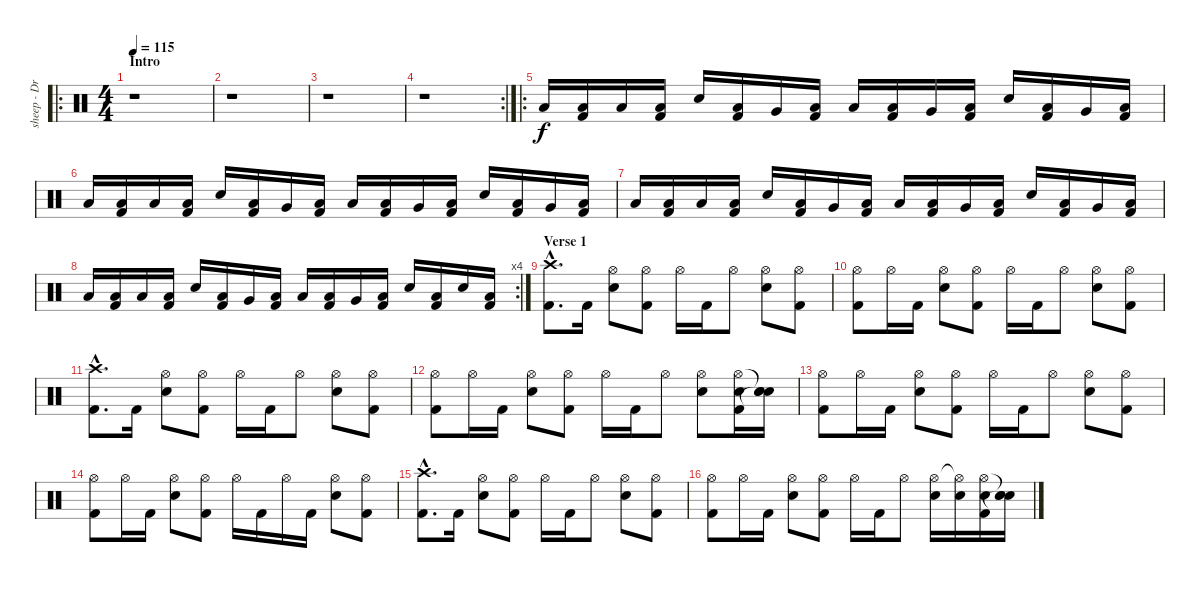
\track ("sheep - Drum track (guide)" "sheep - Dr") {instrument percussion}
\staff {score}
\articulation defaults
\ro
\ts (4 4)
\section ("" "Intro")
\tempo 115
\clef neutral
\ks c
r.1{dy f} |
r.1 |
r.1 |
\rc 2
r.1 |
\ro "Low Tom (hit)".16
("Low Tom (hit)" "Kick (hit) 2").16 "Low Tom (hit)".16 ("Low Tom (hit)" "Kick (hit) 2").16 "Electric Snare (hit)".16 ("Low Tom (hit)" "Kick (hit) 2").16 "Very Low Tom (hit)".16 ("Low Floor Tom (hit)" "Kick (hit) 2").16 "Low Tom (hit)".16 ("Low Floor Tom (hit)" "Kick (hit) 2").16 "Very Low Tom (hit)".16 ("Low Tom (hit)" "Kick (hit) 2").16 "Electric Snare (hit)".16 ("Low Tom (hit)" "Kick (hit) 2").16 "Very Low Tom (hit)".16 ("Low Floor Tom (hit)" "Kick (hit) 2").16 |
"Low Tom (hit)".16 ("Low Tom (hit)" "Kick (hit) 2").16 "Low Tom (hit)".16 ("Low Tom (hit)" "Kick (hit) 2").16 "Electric Snare (hit)".16 ("Low Tom (hit)" "Kick (hit) 2").16 "Very Low Tom (hit)".16 ("Low Floor Tom (hit)" "Kick (hit) 2").16 "Low Tom (hit)".16 ("Low Floor Tom (hit)" "Kick (hit) 2").16 "Very Low Tom (hit)".16 ("Low Tom (hit)" "Kick (hit) 2").16 "Electric Snare (hit)".16 ("Low Tom (hit)" "Kick (hit) 2").16 "Very Low Tom (hit)".16 ("Low Floor Tom (hit)" "Kick (hit) 2").16 |
"Low Tom (hit)".16 ("Low Tom (hit)" "Kick (hit) 2").16 "Low Tom (hit)".16 ("Low Tom (hit)" "Kick (hit) 2").16 "Electric Snare (hit)".16 ("Low Tom (hit)" "Kick (hit) 2").16 "Very Low Tom (hit)".16 ("Low Floor Tom (hit)" "Kick (hit) 2").16 "Low Tom (hit)".16 ("Low Floor Tom (hit)" "Kick (hit) 2").16 "Very Low Tom (hit)".16 ("Low Tom (hit)" "Kick (hit) 2").16 "Electric Snare (hit)".16 ("Low Tom (hit)" "Kick (hit) 2").16 "Very Low Tom (hit)".16 ("Low Floor Tom (hit)" "Kick (hit) 2").16 |
\rc 4 "Low Tom (hit)".16
("Low Tom (hit)" "Kick (hit) 2").16 "Low Tom (hit)".16 ("Low Tom (hit)" "Kick (hit) 2").16 "Electric Snare (hit)".16 ("Low Tom (hit)" "Kick (hit) 2").16 "Very Low Tom (hit)".16 ("Low Floor Tom (hit)" "Kick (hit) 2").16 "Low Tom (hit)".16 ("Low Floor Tom (hit)" "Kick (hit) 2").16 "Very Low Tom (hit)".16 ("Low Tom (hit)" "Kick (hit) 2").16 "Electric Snare (hit)".16 ("Low Tom (hit)" "Kick (hit) 2").16 "Electric Snare (hit)".16 ("Low Floor Tom (hit)" "Kick (hit) 2").16 |
\section ("" "Verse 1")
("Crash high (hit)"{hac} "Kick (hit) 2"{hac}).8{d} "Kick (hit) 2".16 ("Hi-Hat (open)" "Electric Snare (hit)").8 ("Hi-Hat (open)" "Kick (hit) 2").8 "Hi-Hat (open)".16 "Kick (hit) 2".16 "Hi-Hat (open)".8 ("Hi-Hat (open)" "Electric Snare (hit)").8 ("Hi-Hat (open)" "Kick (hit) 2").8 |
("Hi-Hat (open)" "Kick (hit) 2").8 "Hi-Hat (open)".16 "Kick (hit) 2".16 ("Hi-Hat (open)" "Electric Snare (hit)").8 ("Hi-Hat (open)" "Kick (hit) 2").8 "Hi-Hat (open)".16 "Kick (hit) 2".16 "Hi-Hat (open)".8 ("Hi-Hat (open)" "Electric Snare (hit)").8 ("Hi-Hat (open)" "Kick (hit) 2").8 |
("Crash high (hit)"{hac} "Kick (hit) 2"{hac}).8{d} "Kick (hit) 2".16 ("Hi-Hat (open)" "Electric Snare (hit)").8 ("Hi-Hat (open)" "Kick (hit) 2").8 "Hi-Hat (open)".16 "Kick (hit) 2".16 "Hi-Hat (open)".8 ("Hi-Hat (open)" "Electric Snare (hit)").8 ("Hi-Hat (open)" "Kick (hit) 2").8 |
("Hi-Hat (open)" "Kick (hit) 2").8 "Hi-Hat (open)".16 "Kick (hit) 2".16 ("Hi-Hat (open)" "Electric Snare (hit)").8 ("Hi-Hat (open)" "Kick (hit) 2").8 "Hi-Hat (open)".16 "Kick (hit) 2".16 "Hi-Hat (open)".8 ("Hi-Hat (open)" "Electric Snare (hit)").8 ("Hi-Hat (open)" "Electric Snare (hit)" "Kick (hit) 2").16 ("Snare (hit)"{t} "Electric Snare (hit)" "Snare (hit)"{t}).16 |
("Hi-Hat (open)" "Kick (hit) 2").8 "Hi-Hat (open)".16 "Kick (hit) 2".16 ("Hi-Hat (open)" "Electric Snare (hit)").8 ("Hi-Hat (open)" "Kick (hit) 2").8 "Hi-Hat (open)".16 "Kick (hit) 2".16 "Hi-Hat (open)".8 ("Hi-Hat (open)" "Electric Snare (hit)").8 ("Hi-Hat (open)" "Kick (hit) 2").8 |
("Hi-Hat (open)" "Kick (hit) 2").8 "Hi-Hat (open)".16 "Kick (hit) 2".16 ("Hi-Hat (open)" "Electric Snare (hit)").8 ("Hi-Hat (open)" "Kick (hit) 2").8 "Hi-Hat (open)".16 "Kick (hit) 2".16 "Hi-Hat (open)".16 "Kick (hit) 2".16 ("Hi-Hat (open)" "Electric Snare (hit)").8 ("Hi-Hat (open)" "Kick (hit) 2").8 |
("Crash high (hit)"{hac} "Kick (hit) 2"{hac}).8{d} "Kick (hit) 2".16 ("Hi-Hat (open)" "Electric Snare (hit)").8 ("Hi-Hat (open)" "Kick (hit) 2").8 "Hi-Hat (open)".16 "Kick (hit) 2".16 "Hi-Hat (open)".8 ("Hi-Hat (open)" "Electric Snare (hit)").8 ("Hi-Hat (open)" "Kick (hit) 2").8 |
("Hi-Hat (open)" "Kick (hit) 2").8 "Hi-Hat (open)".16 "Kick (hit) 2".16 ("Hi-Hat (open)" "Electric Snare (hit)").8 ("Hi-Hat (open)" "Kick (hit) 2").8 "Hi-Hat (open)".16 "Kick (hit) 2".16 "Hi-Hat (open)".8 ("Hi-Hat (open)" "Electric Snare (hit)").16 ("Hi-Hat (open)"{t} "Electric Snare (hit)").16 ("Hi-Hat (open)" "Electric Snare (hit)" "Kick (hit) 2").16 ("Snare (hit)"{t} "Electric Snare (hit)" "Snare (hit)"{t}).16
